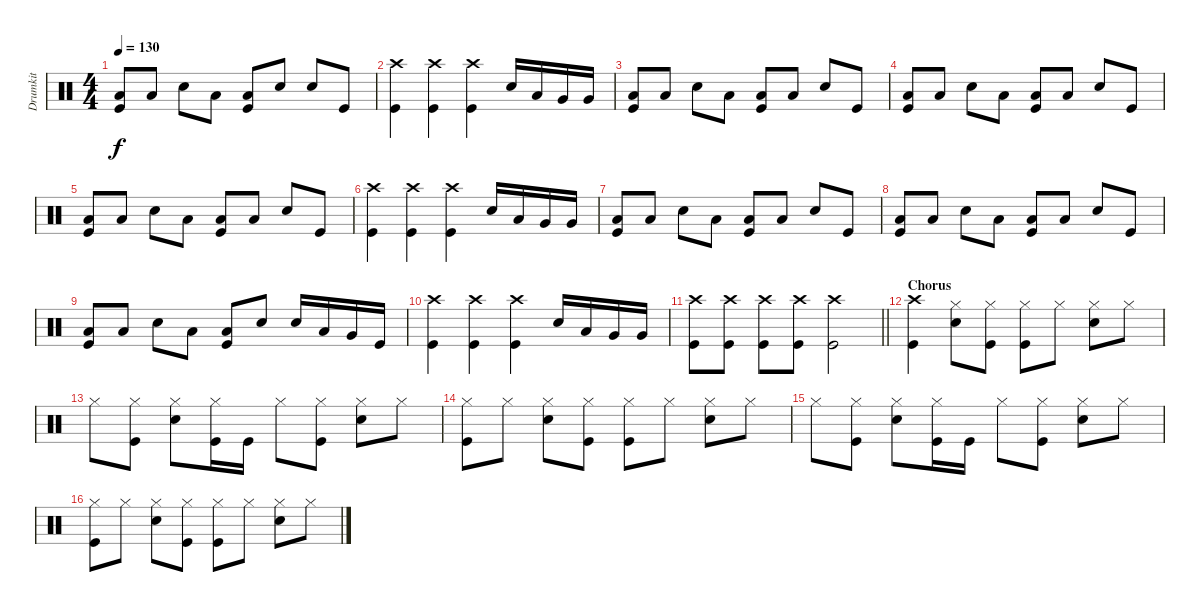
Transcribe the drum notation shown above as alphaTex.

\track ("Drumkit" "Drumkit") {instrument percussion}
\staff {score}
\articulation defaults
\ts (4 4)
\tempo 130
\clef neutral
\ks c
("Kick (hit)" "Low Floor Tom (hit)").8{dy f} "Low Floor Tom (hit)".8 "Snare (hit) 2".8 "Low Floor Tom (hit)".8 ("Low Floor Tom (hit)" "Kick (hit)").8 "Snare (hit) 2".8 "Snare (hit) 2".8 "Kick (hit)".8 |
("Crash high (hit)" "Kick (hit)").4 ("Crash high (hit)" "Kick (hit)").4 ("Crash high (hit)" "Kick (hit)").4 "Snare (hit) 2".16 "Low Tom (hit)".16 "Very Low Tom (hit)".16 "Very Low Tom (hit)".16 |
("Kick (hit)" "Low Floor Tom (hit)").8 "Low Floor Tom (hit)".8 "Snare (hit) 2".8 "Low Floor Tom (hit)".8 ("Low Floor Tom (hit)" "Kick (hit)").8 "Low Floor Tom (hit)".8 "Snare (hit) 2".8 "Kick (hit)".8 |
("Kick (hit)" "Low Floor Tom (hit)").8 "Low Floor Tom (hit)".8 "Snare (hit) 2".8 "Low Floor Tom (hit)".8 ("Low Floor Tom (hit)" "Kick (hit)").8 "Low Floor Tom (hit)".8 "Snare (hit) 2".8 "Kick (hit)".8 |
("Kick (hit)" "Low Floor Tom (hit)").8 "Low Floor Tom (hit)".8 "Snare (hit) 2".8 "Low Floor Tom (hit)".8 ("Low Floor Tom (hit)" "Kick (hit)").8 "Low Floor Tom (hit)".8 "Snare (hit) 2".8 "Kick (hit)".8 |
("Crash high (hit)" "Kick (hit)").4 ("Crash high (hit)" "Kick (hit)").4 ("Crash high (hit)" "Kick (hit)").4 "Snare (hit) 2".16 "Low Tom (hit)".16 "Very Low Tom (hit)".16 "Very Low Tom (hit)".16 |
("Kick (hit)" "Low Floor Tom (hit)").8 "Low Floor Tom (hit)".8 "Snare (hit) 2".8 "Low Floor Tom (hit)".8 ("Low Floor Tom (hit)" "Kick (hit)").8 "Low Floor Tom (hit)".8 "Snare (hit) 2".8 "Kick (hit)".8 |
("Kick (hit)" "Low Floor Tom (hit)").8 "Low Floor Tom (hit)".8 "Snare (hit) 2".8 "Low Floor Tom (hit)".8 ("Low Floor Tom (hit)" "Kick (hit)").8 "Low Floor Tom (hit)".8 "Snare (hit) 2".8 "Kick (hit)".8 |
("Kick (hit)" "Low Floor Tom (hit)").8 "Low Floor Tom (hit)".8 "Snare (hit) 2".8 "Low Floor Tom (hit)".8 ("Low Floor Tom (hit)" "Kick (hit)").8 "Snare (hit) 2".8 "Snare (hit) 2".16 "Low Tom (hit)".16 "Very Low Tom (hit)".16 "Kick (hit)".16 |
("Crash high (hit)" "Kick (hit)").4 ("Crash high (hit)" "Kick (hit)").4 ("Crash high (hit)" "Kick (hit)").4 "Snare (hit) 2".16 "Low Tom (hit)".16 "Very Low Tom (hit)".16 "Very Low Tom (hit)".16 |
\barLineRight lightlight
("Crash high (hit)" "Kick (hit)").8 ("Crash high (hit)" "Kick (hit)").8 ("Crash high (hit)" "Kick (hit)").8 ("Crash high (hit)" "Kick (hit)").8 ("Crash high (hit)" "Kick (hit)").2 |
\section ("" "Chorus")
("Kick (hit)" "Crash high (hit)").4 ("Hi-Hat (closed)" "Snare (hit) 2").8 ("Hi-Hat (closed)" "Kick (hit)").8 ("Hi-Hat (closed)" "Kick (hit)").8 "Hi-Hat (closed)".8 ("Hi-Hat (closed)" "Snare (hit) 2").8 "Hi-Hat (closed)".8 |
"Hi-Hat (closed)".8 ("Hi-Hat (closed)" "Kick (hit)").8 ("Hi-Hat (closed)" "Snare (hit) 2").8 ("Hi-Hat (closed)" "Kick (hit)").16 "Kick (hit)".16 "Hi-Hat (closed)".8 ("Hi-Hat (closed)" "Kick (hit)").8 ("Hi-Hat (closed)" "Snare (hit) 2").8 "Hi-Hat (closed)".8 |
("Hi-Hat (closed)" "Kick (hit)").8 "Hi-Hat (closed)".8 ("Hi-Hat (closed)" "Snare (hit) 2").8 ("Hi-Hat (closed)" "Kick (hit)").8 ("Hi-Hat (closed)" "Kick (hit)").8 "Hi-Hat (closed)".8 ("Hi-Hat (closed)" "Snare (hit) 2").8 "Hi-Hat (closed)".8 |
"Hi-Hat (closed)".8 ("Hi-Hat (closed)" "Kick (hit)").8 ("Hi-Hat (closed)" "Snare (hit) 2").8 ("Hi-Hat (closed)" "Kick (hit)").16 "Kick (hit)".16 "Hi-Hat (closed)".8 ("Hi-Hat (closed)" "Kick (hit)").8 ("Hi-Hat (closed)" "Snare (hit) 2").8 "Hi-Hat (closed)".8 |
("Hi-Hat (closed)" "Kick (hit)").8 "Hi-Hat (closed)".8 ("Hi-Hat (closed)" "Snare (hit) 2").8 ("Hi-Hat (closed)" "Kick (hit)").8 ("Hi-Hat (closed)" "Kick (hit)").8 "Hi-Hat (closed)".8 ("Hi-Hat (closed)" "Snare (hit) 2").8 "Hi-Hat (closed)".8
